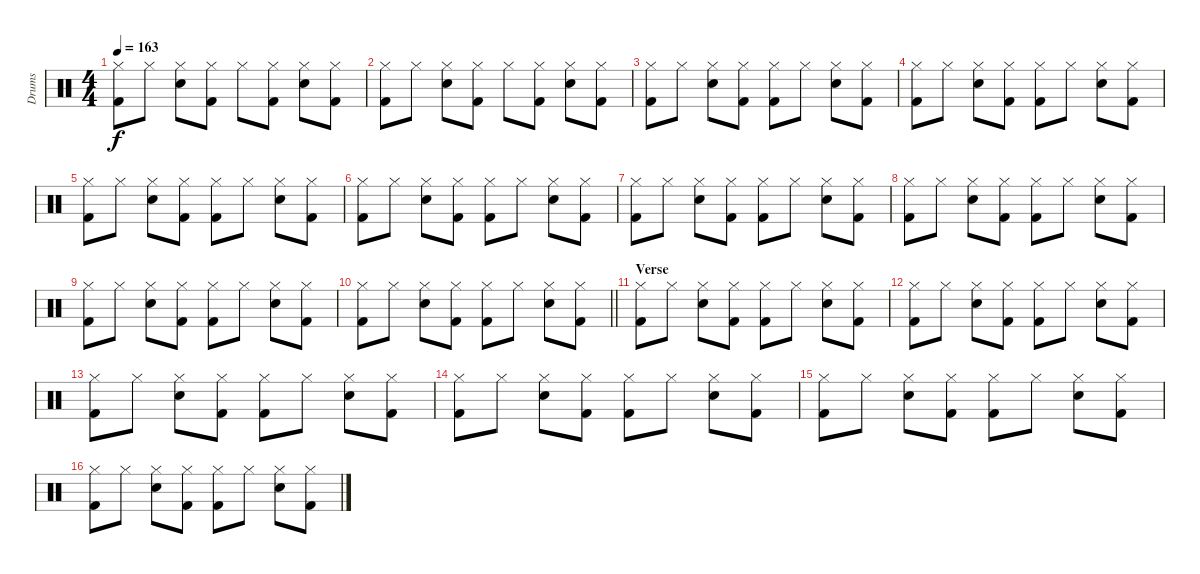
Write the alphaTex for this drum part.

\track ("Drums" "Drums") {instrument percussion}
\staff {score}
\articulation defaults
\ts (4 4)
\tempo 163
\clef neutral
\ks c
("Hi-Hat (closed)" "Kick (hit) 2").8{dy f} "Hi-Hat (closed)".8 ("Hi-Hat (closed)" "Snare (hit) 2").8 ("Hi-Hat (closed)" "Kick (hit) 2").8 "Hi-Hat (closed)".8 ("Hi-Hat (closed)" "Kick (hit) 2").8 ("Hi-Hat (closed)" "Snare (hit) 2").8 ("Hi-Hat (closed)" "Kick (hit) 2").8 |
("Hi-Hat (closed)" "Kick (hit) 2").8 "Hi-Hat (closed)".8 ("Hi-Hat (closed)" "Snare (hit) 2").8 ("Hi-Hat (closed)" "Kick (hit) 2").8 "Hi-Hat (closed)".8 ("Hi-Hat (closed)" "Kick (hit) 2").8 ("Hi-Hat (closed)" "Snare (hit) 2").8 ("Hi-Hat (closed)" "Kick (hit) 2").8 |
("Hi-Hat (closed)" "Kick (hit) 2").8 "Hi-Hat (closed)".8 ("Hi-Hat (closed)" "Snare (hit) 2").8 ("Hi-Hat (closed)" "Kick (hit) 2").8 ("Hi-Hat (closed)" "Kick (hit) 2").8 "Hi-Hat (closed)".8 ("Hi-Hat (closed)" "Snare (hit) 2").8 ("Hi-Hat (closed)" "Kick (hit) 2").8 |
("Hi-Hat (closed)" "Kick (hit) 2").8 "Hi-Hat (closed)".8 ("Hi-Hat (closed)" "Snare (hit) 2").8 ("Hi-Hat (closed)" "Kick (hit) 2").8 ("Hi-Hat (closed)" "Kick (hit) 2").8 "Hi-Hat (closed)".8 ("Hi-Hat (closed)" "Snare (hit) 2").8 ("Hi-Hat (closed)" "Kick (hit) 2").8 |
("Hi-Hat (closed)" "Kick (hit) 2").8 "Hi-Hat (closed)".8 ("Hi-Hat (closed)" "Snare (hit) 2").8 ("Hi-Hat (closed)" "Kick (hit) 2").8 ("Hi-Hat (closed)" "Kick (hit) 2").8 "Hi-Hat (closed)".8 ("Hi-Hat (closed)" "Snare (hit) 2").8 ("Hi-Hat (closed)" "Kick (hit) 2").8 |
("Hi-Hat (closed)" "Kick (hit) 2").8 "Hi-Hat (closed)".8 ("Hi-Hat (closed)" "Snare (hit) 2").8 ("Hi-Hat (closed)" "Kick (hit) 2").8 ("Hi-Hat (closed)" "Kick (hit) 2").8 "Hi-Hat (closed)".8 ("Hi-Hat (closed)" "Snare (hit) 2").8 ("Hi-Hat (closed)" "Kick (hit) 2").8 |
("Hi-Hat (closed)" "Kick (hit) 2").8 "Hi-Hat (closed)".8 ("Hi-Hat (closed)" "Snare (hit) 2").8 ("Hi-Hat (closed)" "Kick (hit) 2").8 ("Hi-Hat (closed)" "Kick (hit) 2").8 "Hi-Hat (closed)".8 ("Hi-Hat (closed)" "Snare (hit) 2").8 ("Hi-Hat (closed)" "Kick (hit) 2").8 |
("Hi-Hat (closed)" "Kick (hit) 2").8 "Hi-Hat (closed)".8 ("Hi-Hat (closed)" "Snare (hit) 2").8 ("Hi-Hat (closed)" "Kick (hit) 2").8 ("Hi-Hat (closed)" "Kick (hit) 2").8 "Hi-Hat (closed)".8 ("Hi-Hat (closed)" "Snare (hit) 2").8 ("Hi-Hat (closed)" "Kick (hit) 2").8 |
("Hi-Hat (closed)" "Kick (hit) 2").8 "Hi-Hat (closed)".8 ("Hi-Hat (closed)" "Snare (hit) 2").8 ("Hi-Hat (closed)" "Kick (hit) 2").8 ("Hi-Hat (closed)" "Kick (hit) 2").8 "Hi-Hat (closed)".8 ("Hi-Hat (closed)" "Snare (hit) 2").8 ("Hi-Hat (closed)" "Kick (hit) 2").8 |
\barLineRight lightlight
("Hi-Hat (closed)" "Kick (hit) 2").8 "Hi-Hat (closed)".8 ("Hi-Hat (closed)" "Snare (hit) 2").8 ("Hi-Hat (closed)" "Kick (hit) 2").8 ("Hi-Hat (closed)" "Kick (hit) 2").8 "Hi-Hat (closed)".8 ("Hi-Hat (closed)" "Snare (hit) 2").8 ("Hi-Hat (closed)" "Kick (hit) 2").8 |
\section ("" "Verse")
("Hi-Hat (closed)" "Kick (hit) 2").8 "Hi-Hat (closed)".8 ("Hi-Hat (closed)" "Snare (hit) 2").8 ("Hi-Hat (closed)" "Kick (hit) 2").8 ("Hi-Hat (closed)" "Kick (hit) 2").8 "Hi-Hat (closed)".8 ("Hi-Hat (closed)" "Snare (hit) 2").8 ("Hi-Hat (closed)" "Kick (hit) 2").8 |
("Hi-Hat (closed)" "Kick (hit) 2").8 "Hi-Hat (closed)".8 ("Hi-Hat (closed)" "Snare (hit) 2").8 ("Hi-Hat (closed)" "Kick (hit) 2").8 ("Hi-Hat (closed)" "Kick (hit) 2").8 "Hi-Hat (closed)".8 ("Hi-Hat (closed)" "Snare (hit) 2").8 ("Hi-Hat (closed)" "Kick (hit) 2").8 |
("Hi-Hat (closed)" "Kick (hit) 2").8 "Hi-Hat (closed)".8 ("Hi-Hat (closed)" "Snare (hit) 2").8 ("Hi-Hat (closed)" "Kick (hit) 2").8 ("Hi-Hat (closed)" "Kick (hit) 2").8 "Hi-Hat (closed)".8 ("Hi-Hat (closed)" "Snare (hit) 2").8 ("Hi-Hat (closed)" "Kick (hit) 2").8 |
("Hi-Hat (closed)" "Kick (hit) 2").8 "Hi-Hat (closed)".8 ("Hi-Hat (closed)" "Snare (hit) 2").8 ("Hi-Hat (closed)" "Kick (hit) 2").8 ("Hi-Hat (closed)" "Kick (hit) 2").8 "Hi-Hat (closed)".8 ("Hi-Hat (closed)" "Snare (hit) 2").8 ("Hi-Hat (closed)" "Kick (hit) 2").8 |
("Hi-Hat (closed)" "Kick (hit) 2").8 "Hi-Hat (closed)".8 ("Hi-Hat (closed)" "Snare (hit) 2").8 ("Hi-Hat (closed)" "Kick (hit) 2").8 ("Hi-Hat (closed)" "Kick (hit) 2").8 "Hi-Hat (closed)".8 ("Hi-Hat (closed)" "Snare (hit) 2").8 ("Hi-Hat (closed)" "Kick (hit) 2").8 |
("Hi-Hat (closed)" "Kick (hit) 2").8 "Hi-Hat (closed)".8 ("Hi-Hat (closed)" "Snare (hit) 2").8 ("Hi-Hat (closed)" "Kick (hit) 2").8 ("Hi-Hat (closed)" "Kick (hit) 2").8 "Hi-Hat (closed)".8 ("Hi-Hat (closed)" "Snare (hit) 2").8 ("Hi-Hat (closed)" "Kick (hit) 2").8
